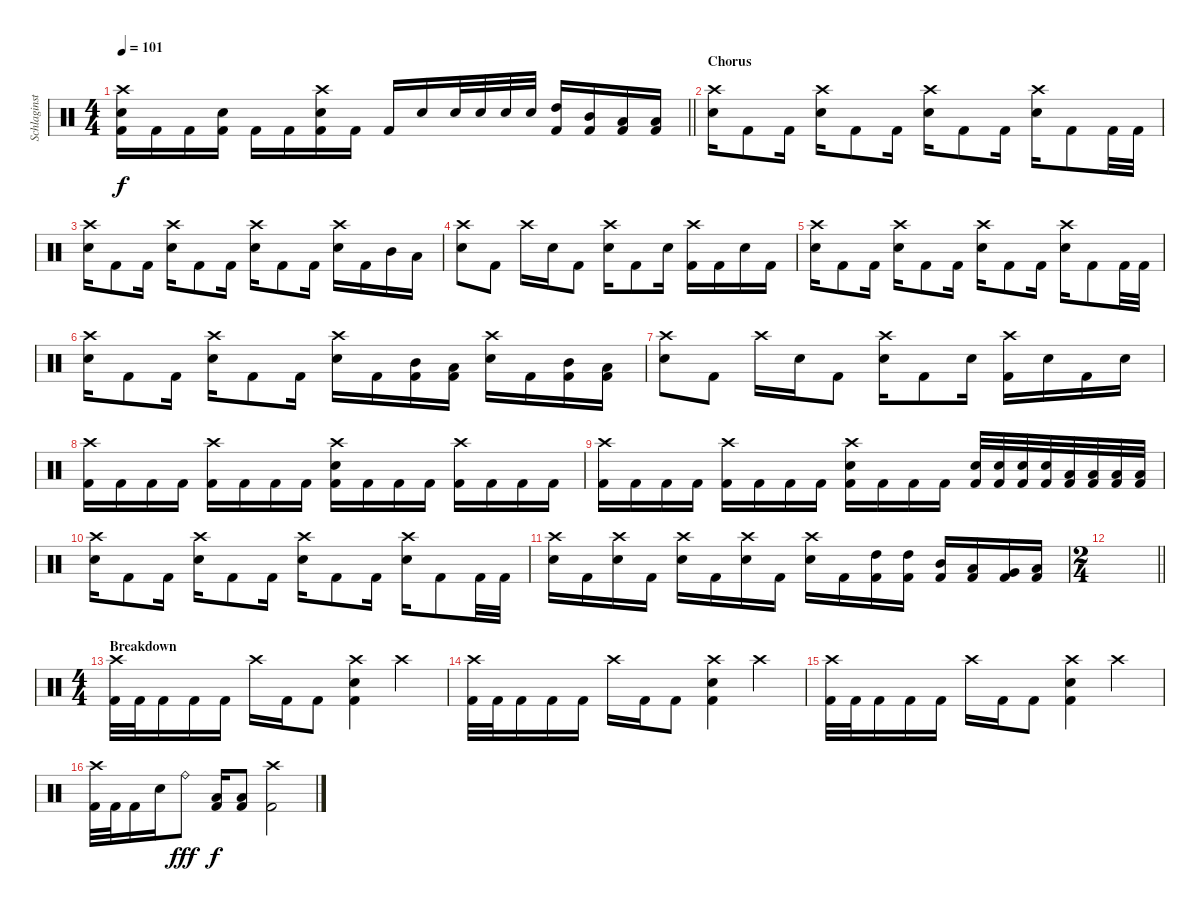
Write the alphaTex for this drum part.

\track ("Schlaginstrumente - Auswahl" "Schlaginst") {instrument percussion}
\staff {score}
\articulation defaults
\ts (4 4)
\tempo 101
\clef neutral
\barLineRight lightlight
\ks c
("Crash high (hit)" "Snare (hit) 2" "Kick (hit) 2").16{dy f} "Kick (hit) 2".16 "Kick (hit) 2".16 ("Snare (hit) 2" "Kick (hit) 2").16 "Kick (hit) 2".16 "Kick (hit) 2".16 ("Crash high (hit)" "Snare (hit) 2" "Kick (hit) 2").16 "Kick (hit) 2".16 "Kick (hit) 2".16 "Snare (hit) 2".16 "Snare (hit) 2".32 "Snare (hit) 2".32 "Snare (hit) 2".32 "Snare (hit) 2".32 ("High Tom (hit)" "Kick (hit) 2").16 ("Mid Tom (hit)" "Kick (hit) 2").16 ("Low Tom (hit)" "Kick (hit) 2").16 ("Low Floor Tom (hit)" "Kick (hit) 2").16 |
\section ("" "Chorus")
("Crash high (hit)" "Snare (hit) 2").16 "Kick (hit) 2".8 "Kick (hit) 2".16 ("Crash high (hit)" "Snare (hit) 2").16 "Kick (hit) 2".8 "Kick (hit) 2".16 ("Crash high (hit)" "Snare (hit) 2").16 "Kick (hit) 2".8 "Kick (hit) 2".16 ("Crash high (hit)" "Snare (hit) 2").16 "Kick (hit) 2".8 "Kick (hit) 2".32 "Kick (hit) 2".32 |
("Crash high (hit)" "Snare (hit) 2").16 "Kick (hit) 2".8 "Kick (hit) 2".16 ("Crash high (hit)" "Snare (hit) 2").16 "Kick (hit) 2".8 "Kick (hit) 2".16 ("Crash high (hit)" "Snare (hit) 2").16 "Kick (hit) 2".8 "Kick (hit) 2".16 ("Crash high (hit)" "Snare (hit) 2").16 "Kick (hit) 2".16 "Mid Tom (hit)".16 "Low Tom (hit)".16 |
("Crash high (hit)" "Snare (hit) 2").8 "Kick (hit) 2".8 "Crash high (hit)".16 "Snare (hit) 2".16 "Kick (hit) 2".8 ("Crash high (hit)" "Snare (hit) 2").16 "Kick (hit) 2".8 "Snare (hit) 2".16 ("Crash high (hit)" "Kick (hit) 2").16 "Kick (hit) 2".16 "Snare (hit) 2".16 "Kick (hit) 2".16 |
("Crash high (hit)" "Snare (hit) 2").16 "Kick (hit) 2".8 "Kick (hit) 2".16 ("Crash high (hit)" "Snare (hit) 2").16 "Kick (hit) 2".8 "Kick (hit) 2".16 ("Crash high (hit)" "Snare (hit) 2").16 "Kick (hit) 2".8 "Kick (hit) 2".16 ("Crash high (hit)" "Snare (hit) 2").16 "Kick (hit) 2".8 "Kick (hit) 2".32 "Kick (hit) 2".32 |
("Crash high (hit)" "Snare (hit) 2").16 "Kick (hit) 2".8 "Kick (hit) 2".16 ("Crash high (hit)" "Snare (hit) 2").16 "Kick (hit) 2".8 "Kick (hit) 2".16 ("Crash high (hit)" "Snare (hit) 2").16 "Kick (hit) 2".16 ("Mid Tom (hit)" "Kick (hit) 2").16 ("Low Tom (hit)" "Kick (hit) 2").16 ("Crash high (hit)" "Snare (hit) 2").16 "Kick (hit) 2".16 ("Mid Tom (hit)" "Kick (hit) 2").16 ("Low Tom (hit)" "Kick (hit) 2").16 |
("Crash high (hit)" "Snare (hit) 2").8 "Kick (hit) 2".8 "Crash high (hit)".16 "Snare (hit) 2".16 "Kick (hit) 2".8 ("Crash high (hit)" "Snare (hit) 2").16 "Kick (hit) 2".8 "Snare (hit) 2".16 ("Crash high (hit)" "Kick (hit) 2").16 "Snare (hit) 2".16 "Kick (hit) 2".16 "Snare (hit) 2".16 |
("Crash high (hit)" "Kick (hit) 2").16 "Kick (hit) 2".16 "Kick (hit) 2".16 "Kick (hit) 2".16 ("Crash high (hit)" "Kick (hit) 2").16 "Kick (hit) 2".16 "Kick (hit) 2".16 "Kick (hit) 2".16 ("Crash high (hit)" "Snare (hit) 2" "Kick (hit) 2").16 "Kick (hit) 2".16 "Kick (hit) 2".16 "Kick (hit) 2".16 ("Crash high (hit)" "Kick (hit) 2").16 "Kick (hit) 2".16 "Kick (hit) 2".16 "Kick (hit) 2".16 |
("Crash high (hit)" "Kick (hit) 2").16 "Kick (hit) 2".16 "Kick (hit) 2".16 "Kick (hit) 2".16 ("Crash high (hit)" "Kick (hit) 2").16 "Kick (hit) 2".16 "Kick (hit) 2".16 "Kick (hit) 2".16 ("Crash high (hit)" "Snare (hit) 2" "Kick (hit) 2").16 "Kick (hit) 2".16 "Kick (hit) 2".16 "Kick (hit) 2".16 ("Snare (hit) 2" "Kick (hit) 2").32 ("Snare (hit) 2" "Kick (hit) 2").32 ("Snare (hit) 2" "Kick (hit) 2").32 ("Snare (hit) 2" "Kick (hit) 2").32 ("Low Tom (hit)" "Kick (hit) 2").32 ("Low Tom (hit)" "Kick (hit) 2").32 ("Low Tom (hit)" "Kick (hit) 2").32 ("Low Tom (hit)" "Kick (hit) 2").32 |
("Crash high (hit)" "Snare (hit) 2").16 "Kick (hit) 2".8 "Kick (hit) 2".16 ("Crash high (hit)" "Snare (hit) 2").16 "Kick (hit) 2".8 "Kick (hit) 2".16 ("Crash high (hit)" "Snare (hit) 2").16 "Kick (hit) 2".8 "Kick (hit) 2".16 ("Crash high (hit)" "Snare (hit) 2").16 "Kick (hit) 2".8 "Kick (hit) 2".32 "Kick (hit) 2".32 |
("Crash high (hit)" "Snare (hit) 2").16 "Kick (hit) 2".16 ("Crash high (hit)" "Snare (hit) 2").16 "Kick (hit) 2".16 ("Crash high (hit)" "Snare (hit) 2").16 "Kick (hit) 2".16 ("Crash high (hit)" "Snare (hit) 2").16 "Kick (hit) 2".16 ("Crash high (hit)" "Snare (hit) 2").16 "Kick (hit) 2".16 ("High Tom (hit)" "Kick (hit) 2").16 ("High Tom (hit)" "Kick (hit) 2").16 ("Mid Tom (hit)" "Kick (hit) 2").16 ("Low Tom (hit)" "Kick (hit) 2").16 ("Very Low Tom (hit)" "Kick (hit) 2").16 ("Low Floor Tom (hit)" "Kick (hit) 2").16 |
\ts (2 4)
\barLineRight lightlight
|
\ts (4 4)
\section ("" "Breakdown")
("Crash high (hit)" "Kick (hit) 2").32 "Kick (hit) 2".32 "Kick (hit) 2".16 "Kick (hit) 2".16 "Kick (hit) 2".16 "Crash high (hit)".16 "Kick (hit) 2".16 "Kick (hit) 2".8 ("Crash high (hit)" "Snare (hit) 2" "Kick (hit) 2").4 "Crash high (hit)".4 |
("Crash high (hit)" "Kick (hit) 2").32 "Kick (hit) 2".32 "Kick (hit) 2".16 "Kick (hit) 2".16 "Kick (hit) 2".16 "Crash high (hit)".16 "Kick (hit) 2".16 "Kick (hit) 2".8 ("Crash high (hit)" "Snare (hit) 2" "Kick (hit) 2").4 "Crash high (hit)".4 |
("Crash high (hit)" "Kick (hit) 2").32 "Kick (hit) 2".32 "Kick (hit) 2".16 "Kick (hit) 2".16 "Kick (hit) 2".16 "Crash high (hit)".16 "Kick (hit) 2".16 "Kick (hit) 2".8 ("Crash high (hit)" "Snare (hit) 2" "Kick (hit) 2").4 "Crash high (hit)".4 |
("Crash high (hit)" "Kick (hit) 2").32 "Kick (hit) 2".32 "Kick (hit) 2".16 "Snare (hit) 2".16 "Ride (bell)".8{dy fff} ("Low Tom (hit)" "Kick (hit) 2").16{dy f} ("Low Tom (hit)" "Kick (hit) 2").8 ("Crash high (hit)" "Kick (hit) 2").2
